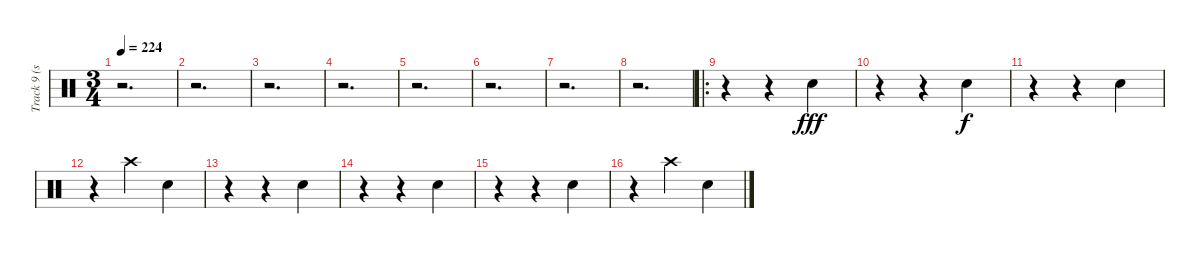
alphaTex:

\track ("Track 9 (snare)" "Track 9 (s") {instrument percussion}
\staff {score}
\articulation defaults
\ts (3 4)
\tempo 224
\clef neutral
\ks c
r.2{d dy fff} |
r.2{d} |
r.2{d} |
r.2{d} |
r.2{d} |
r.2{d} |
r.2{d} |
r.2{d} |
\ro
r.4 r.4 "Electric Snare (hit)".4 |
r.4 r.4 "Electric Snare (hit)".4{dy f} |
r.4 r.4 "Electric Snare (hit)".4 |
r.4 "Crash high (hit)".4 "Electric Snare (hit)".4 |
r.4 r.4 "Electric Snare (hit)".4 |
r.4 r.4 "Electric Snare (hit)".4 |
r.4 r.4 "Electric Snare (hit)".4 |
r.4 "Crash high (hit)".4 "Electric Snare (hit)".4
